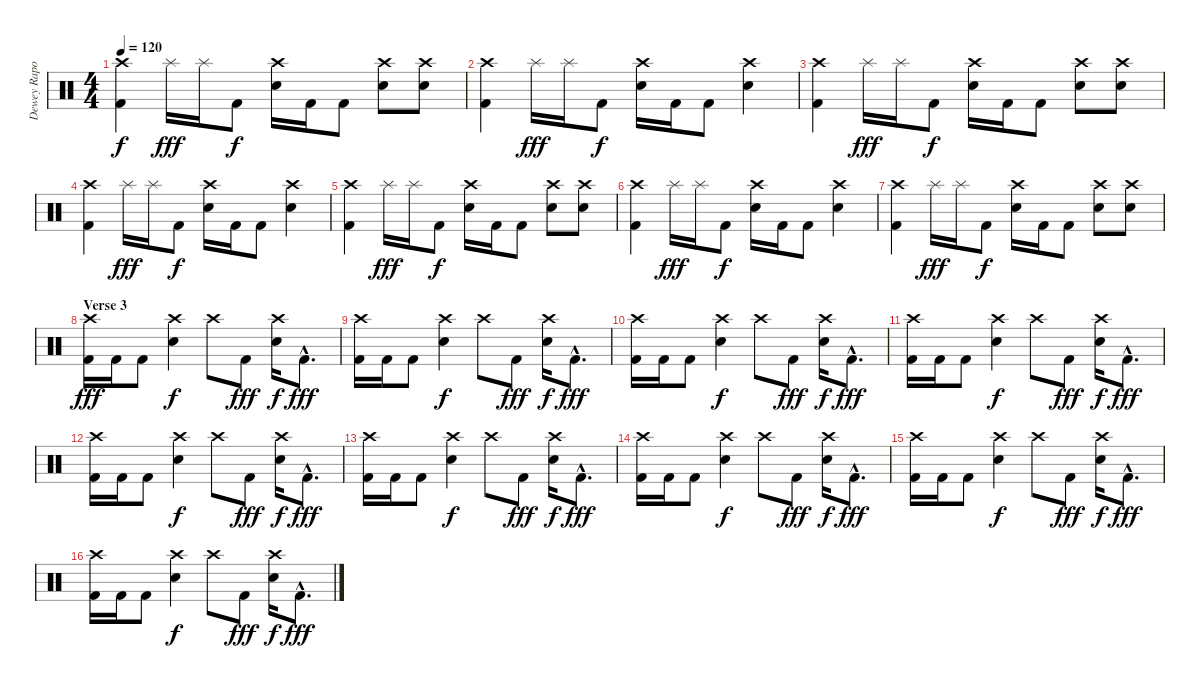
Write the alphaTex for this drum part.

\track ("Dewey Raposo" "Dewey Rapo") {instrument percussion}
\staff {score}
\articulation defaults
\ts (4 4)
\tempo 120
\clef neutral
\ks c
("Crash high (hit)" "Kick (hit) 2").4{dy f} "Splash (hit)".16{dy fff} "Splash (hit)".16 "Kick (hit) 2".8{dy f} ("Crash high (hit)" "Electric Snare (hit)").16 "Kick (hit) 2".16 "Kick (hit) 2".8 ("Crash high (hit)" "Electric Snare (hit)").8 ("Crash high (hit)" "Electric Snare (hit)").8 |
("Crash high (hit)" "Kick (hit) 2").4 "Splash (hit)".16{dy fff} "Splash (hit)".16 "Kick (hit) 2".8{dy f} ("Crash high (hit)" "Electric Snare (hit)").16 "Kick (hit) 2".16 "Kick (hit) 2".8 ("Crash high (hit)" "Electric Snare (hit)").4 |
("Crash high (hit)" "Kick (hit) 2").4 "Splash (hit)".16{dy fff} "Splash (hit)".16 "Kick (hit) 2".8{dy f} ("Crash high (hit)" "Electric Snare (hit)").16 "Kick (hit) 2".16 "Kick (hit) 2".8 ("Crash high (hit)" "Electric Snare (hit)").8 ("Crash high (hit)" "Electric Snare (hit)").8 |
("Crash high (hit)" "Kick (hit) 2").4 "Splash (hit)".16{dy fff} "Splash (hit)".16 "Kick (hit) 2".8{dy f} ("Crash high (hit)" "Electric Snare (hit)").16 "Kick (hit) 2".16 "Kick (hit) 2".8 ("Crash high (hit)" "Electric Snare (hit)").4 |
("Crash high (hit)" "Kick (hit) 2").4 "Splash (hit)".16{dy fff} "Splash (hit)".16 "Kick (hit) 2".8{dy f} ("Crash high (hit)" "Electric Snare (hit)").16 "Kick (hit) 2".16 "Kick (hit) 2".8 ("Crash high (hit)" "Electric Snare (hit)").8 ("Crash high (hit)" "Electric Snare (hit)").8 |
("Crash high (hit)" "Kick (hit) 2").4 "Splash (hit)".16{dy fff} "Splash (hit)".16 "Kick (hit) 2".8{dy f} ("Crash high (hit)" "Electric Snare (hit)").16 "Kick (hit) 2".16 "Kick (hit) 2".8 ("Crash high (hit)" "Electric Snare (hit)").4 |
("Crash high (hit)" "Kick (hit) 2").4 "Splash (hit)".16{dy fff} "Splash (hit)".16 "Kick (hit) 2".8{dy f} ("Crash high (hit)" "Electric Snare (hit)").16 "Kick (hit) 2".16 "Kick (hit) 2".8 ("Crash high (hit)" "Electric Snare (hit)").8 ("Crash high (hit)" "Electric Snare (hit)").8 |
\section ("" "Verse 3")
("Crash high (hit)" "Kick (hit) 2").16{dy fff} "Kick (hit) 2".16 "Kick (hit) 2".8 ("Crash high (hit)" "Electric Snare (hit)").4{dy f} "Crash high (hit)".8 "Kick (hit) 2".8{dy fff} ("Crash high (hit)" "Electric Snare (hit)").16{dy f} "Kick (hit) 2"{hac}.8{d dy fff} |
("Crash high (hit)" "Kick (hit) 2").16 "Kick (hit) 2".16 "Kick (hit) 2".8 ("Crash high (hit)" "Electric Snare (hit)").4{dy f} "Crash high (hit)".8 "Kick (hit) 2".8{dy fff} ("Crash high (hit)" "Electric Snare (hit)").16{dy f} "Kick (hit) 2"{hac}.8{d dy fff} |
("Crash high (hit)" "Kick (hit) 2").16 "Kick (hit) 2".16 "Kick (hit) 2".8 ("Crash high (hit)" "Electric Snare (hit)").4{dy f} "Crash high (hit)".8 "Kick (hit) 2".8{dy fff} ("Crash high (hit)" "Electric Snare (hit)").16{dy f} "Kick (hit) 2"{hac}.8{d dy fff} |
("Crash high (hit)" "Kick (hit) 2").16 "Kick (hit) 2".16 "Kick (hit) 2".8 ("Crash high (hit)" "Electric Snare (hit)").4{dy f} "Crash high (hit)".8 "Kick (hit) 2".8{dy fff} ("Crash high (hit)" "Electric Snare (hit)").16{dy f} "Kick (hit) 2"{hac}.8{d dy fff} |
("Crash high (hit)" "Kick (hit) 2").16 "Kick (hit) 2".16 "Kick (hit) 2".8 ("Crash high (hit)" "Electric Snare (hit)").4{dy f} "Crash high (hit)".8 "Kick (hit) 2".8{dy fff} ("Crash high (hit)" "Electric Snare (hit)").16{dy f} "Kick (hit) 2"{hac}.8{d dy fff} |
("Crash high (hit)" "Kick (hit) 2").16 "Kick (hit) 2".16 "Kick (hit) 2".8 ("Crash high (hit)" "Electric Snare (hit)").4{dy f} "Crash high (hit)".8 "Kick (hit) 2".8{dy fff} ("Crash high (hit)" "Electric Snare (hit)").16{dy f} "Kick (hit) 2"{hac}.8{d dy fff} |
("Crash high (hit)" "Kick (hit) 2").16 "Kick (hit) 2".16 "Kick (hit) 2".8 ("Crash high (hit)" "Electric Snare (hit)").4{dy f} "Crash high (hit)".8 "Kick (hit) 2".8{dy fff} ("Crash high (hit)" "Electric Snare (hit)").16{dy f} "Kick (hit) 2"{hac}.8{d dy fff} |
("Crash high (hit)" "Kick (hit) 2").16 "Kick (hit) 2".16 "Kick (hit) 2".8 ("Crash high (hit)" "Electric Snare (hit)").4{dy f} "Crash high (hit)".8 "Kick (hit) 2".8{dy fff} ("Crash high (hit)" "Electric Snare (hit)").16{dy f} "Kick (hit) 2"{hac}.8{d dy fff} |
("Crash high (hit)" "Kick (hit) 2").16 "Kick (hit) 2".16 "Kick (hit) 2".8 ("Crash high (hit)" "Electric Snare (hit)").4{dy f} "Crash high (hit)".8 "Kick (hit) 2".8{dy fff} ("Crash high (hit)" "Electric Snare (hit)").16{dy f} "Kick (hit) 2"{hac}.8{d dy fff}
